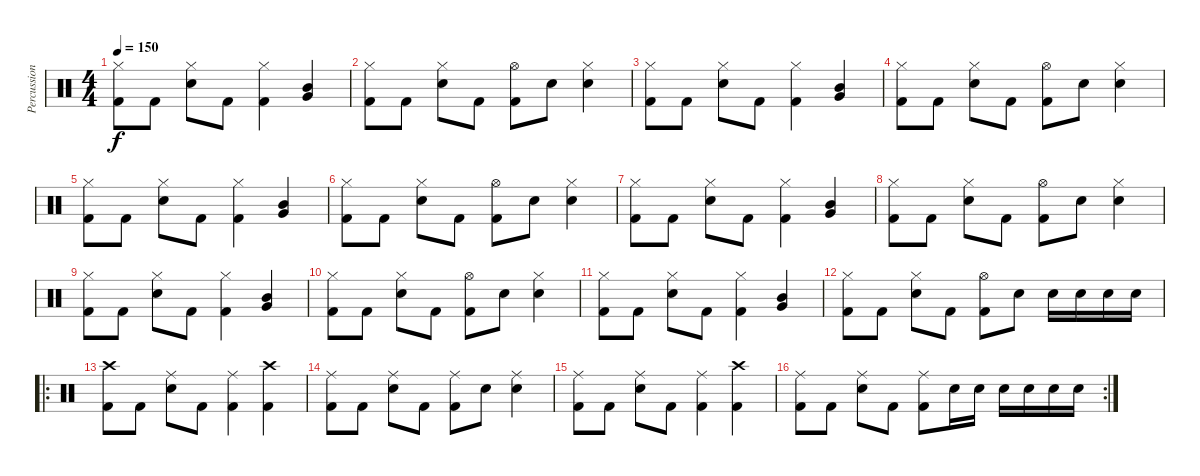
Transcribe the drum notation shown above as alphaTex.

\track ("Percussion" "Percussion") {instrument percussion}
\staff {score}
\articulation defaults
\ts (4 4)
\tempo 150
\clef neutral
\ks c
("Hi-Hat (closed)" "Kick (hit) 2").8{dy f} "Kick (hit) 2".8 ("Hi-Hat (closed)" "Snare (hit) 2").8 "Kick (hit) 2".8 ("Hi-Hat (closed)" "Kick (hit) 2").4 ("Mid Tom (hit)" "Very Low Tom (hit)").4 |
("Hi-Hat (closed)" "Kick (hit) 2").8 "Kick (hit) 2".8 ("Hi-Hat (closed)" "Snare (hit) 2").8 "Kick (hit) 2".8 ("Hi-Hat (open)" "Kick (hit) 2").8 "Snare (hit) 2".8 ("Hi-Hat (closed)" "Snare (hit) 2").4 |
("Hi-Hat (closed)" "Kick (hit) 2").8 "Kick (hit) 2".8 ("Hi-Hat (closed)" "Snare (hit) 2").8 "Kick (hit) 2".8 ("Hi-Hat (closed)" "Kick (hit) 2").4 ("Mid Tom (hit)" "Very Low Tom (hit)").4 |
("Hi-Hat (closed)" "Kick (hit) 2").8 "Kick (hit) 2".8 ("Hi-Hat (closed)" "Snare (hit) 2").8 "Kick (hit) 2".8 ("Hi-Hat (open)" "Kick (hit) 2").8 "Snare (hit) 2".8 ("Hi-Hat (closed)" "Snare (hit) 2").4 |
("Hi-Hat (closed)" "Kick (hit) 2").8 "Kick (hit) 2".8 ("Hi-Hat (closed)" "Snare (hit) 2").8 "Kick (hit) 2".8 ("Hi-Hat (closed)" "Kick (hit) 2").4 ("Mid Tom (hit)" "Very Low Tom (hit)").4 |
("Hi-Hat (closed)" "Kick (hit) 2").8 "Kick (hit) 2".8 ("Hi-Hat (closed)" "Snare (hit) 2").8 "Kick (hit) 2".8 ("Hi-Hat (open)" "Kick (hit) 2").8 "Snare (hit) 2".8 ("Hi-Hat (closed)" "Snare (hit) 2").4 |
("Hi-Hat (closed)" "Kick (hit) 2").8 "Kick (hit) 2".8 ("Hi-Hat (closed)" "Snare (hit) 2").8 "Kick (hit) 2".8 ("Hi-Hat (closed)" "Kick (hit) 2").4 ("Mid Tom (hit)" "Very Low Tom (hit)").4 |
("Hi-Hat (closed)" "Kick (hit) 2").8 "Kick (hit) 2".8 ("Hi-Hat (closed)" "Snare (hit) 2").8 "Kick (hit) 2".8 ("Hi-Hat (open)" "Kick (hit) 2").8 "Snare (hit) 2".8 ("Hi-Hat (closed)" "Snare (hit) 2").4 |
("Hi-Hat (closed)" "Kick (hit) 2").8 "Kick (hit) 2".8 ("Hi-Hat (closed)" "Snare (hit) 2").8 "Kick (hit) 2".8 ("Hi-Hat (closed)" "Kick (hit) 2").4 ("Mid Tom (hit)" "Very Low Tom (hit)").4 |
("Hi-Hat (closed)" "Kick (hit) 2").8 "Kick (hit) 2".8 ("Hi-Hat (closed)" "Snare (hit) 2").8 "Kick (hit) 2".8 ("Hi-Hat (open)" "Kick (hit) 2").8 "Snare (hit) 2".8 ("Hi-Hat (closed)" "Snare (hit) 2").4 |
("Hi-Hat (closed)" "Kick (hit) 2").8 "Kick (hit) 2".8 ("Hi-Hat (closed)" "Snare (hit) 2").8 "Kick (hit) 2".8 ("Hi-Hat (closed)" "Kick (hit) 2").4 ("Mid Tom (hit)" "Very Low Tom (hit)").4 |
("Hi-Hat (closed)" "Kick (hit) 2").8 "Kick (hit) 2".8 ("Hi-Hat (closed)" "Snare (hit) 2").8 "Kick (hit) 2".8 ("Hi-Hat (open)" "Kick (hit) 2").8 "Snare (hit) 2".8 "Snare (hit) 2".16 "Snare (hit) 2".16 "Snare (hit) 2".16 "Snare (hit) 2".16 |
\ro
("Crash high (hit)" "Kick (hit) 2").8 "Kick (hit) 2".8 ("Ride (middle)" "Snare (hit) 2").8 "Kick (hit) 2".8 ("Ride (middle)" "Kick (hit) 2").4 ("Crash high (hit)" "Kick (hit) 2").4 |
("Ride (middle)" "Kick (hit) 2").8 "Kick (hit) 2".8 ("Ride (middle)" "Snare (hit) 2").8 "Kick (hit) 2".8 ("Ride (middle)" "Kick (hit) 2").8 "Snare (hit) 2".8 ("Ride (middle)" "Snare (hit) 2").4 |
("Ride (middle)" "Kick (hit) 2").8 "Kick (hit) 2".8 ("Ride (middle)" "Snare (hit) 2").8 "Kick (hit) 2".8 ("Ride (middle)" "Kick (hit) 2").4 ("Crash high (hit)" "Kick (hit) 2").4 |
\rc 2
("Ride (middle)" "Kick (hit) 2").8 "Kick (hit) 2".8 ("Ride (middle)" "Snare (hit) 2").8 "Kick (hit) 2".8 ("Ride (middle)" "Kick (hit) 2").8 "Snare (hit) 2".16 "Snare (hit) 2".16 "Snare (hit) 2".16 "Snare (hit) 2".16 "Snare (hit) 2".16 "Snare (hit) 2".16
